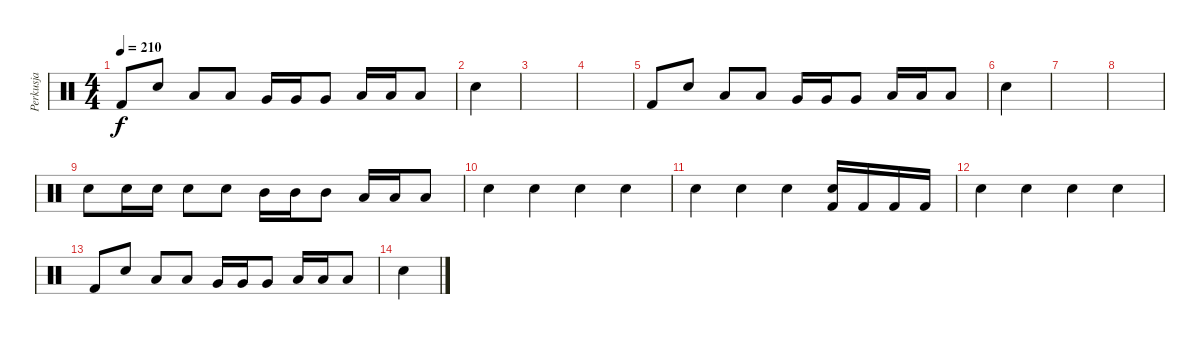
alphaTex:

\track ("Perkusja" "Perkusja") {instrument percussion}
\staff {score}
\articulation defaults
\ts (4 4)
\tempo 210
\clef neutral
\ks c "Kick (hit) 2".8{dy f} "Electric Snare (hit)".8 "Low Tom (hit)".8 "Low Tom (hit)".8 "Very Low Tom (hit)".16 "Very Low Tom (hit)".16 "Very Low Tom (hit)".8 "Low Floor Tom (hit)".16 "Low Floor Tom (hit)".16 "Low Floor Tom (hit)".8
|
"Electric Snare (hit)".4 |
|
|
"Kick (hit) 2".8 "Electric Snare (hit)".8 "Low Tom (hit)".8 "Low Tom (hit)".8 "Very Low Tom (hit)".16 "Very Low Tom (hit)".16 "Very Low Tom (hit)".8 "Low Floor Tom (hit)".16 "Low Floor Tom (hit)".16 "Low Floor Tom (hit)".8 |
"Electric Snare (hit)".4 |
|
|
"Electric Snare (hit)".8 "Electric Snare (hit)".16 "Electric Snare (hit)".16 "Electric Snare (hit)".8 "Electric Snare (hit)".8 "Mid Tom (hit)".16 "Mid Tom (hit)".16 "Mid Tom (hit)".8 "Low Tom (hit)".16 "Low Tom (hit)".16 "Low Tom (hit)".8 |
"Electric Snare (hit)".4 "Electric Snare (hit)".4 "Electric Snare (hit)".4 "Electric Snare (hit)".4 |
"Electric Snare (hit)".4 "Electric Snare (hit)".4 "Electric Snare (hit)".4 ("Electric Snare (hit)" "Kick (hit) 2").16 "Kick (hit) 2".16 "Kick (hit) 2".16 "Kick (hit) 2".16 |
"Electric Snare (hit)".4 "Electric Snare (hit)".4 "Electric Snare (hit)".4 "Electric Snare (hit)".4 |
"Kick (hit) 2".8 "Electric Snare (hit)".8 "Low Tom (hit)".8 "Low Tom (hit)".8 "Very Low Tom (hit)".16 "Very Low Tom (hit)".16 "Very Low Tom (hit)".8 "Low Floor Tom (hit)".16 "Low Floor Tom (hit)".16 "Low Floor Tom (hit)".8 |
"Electric Snare (hit)".4
